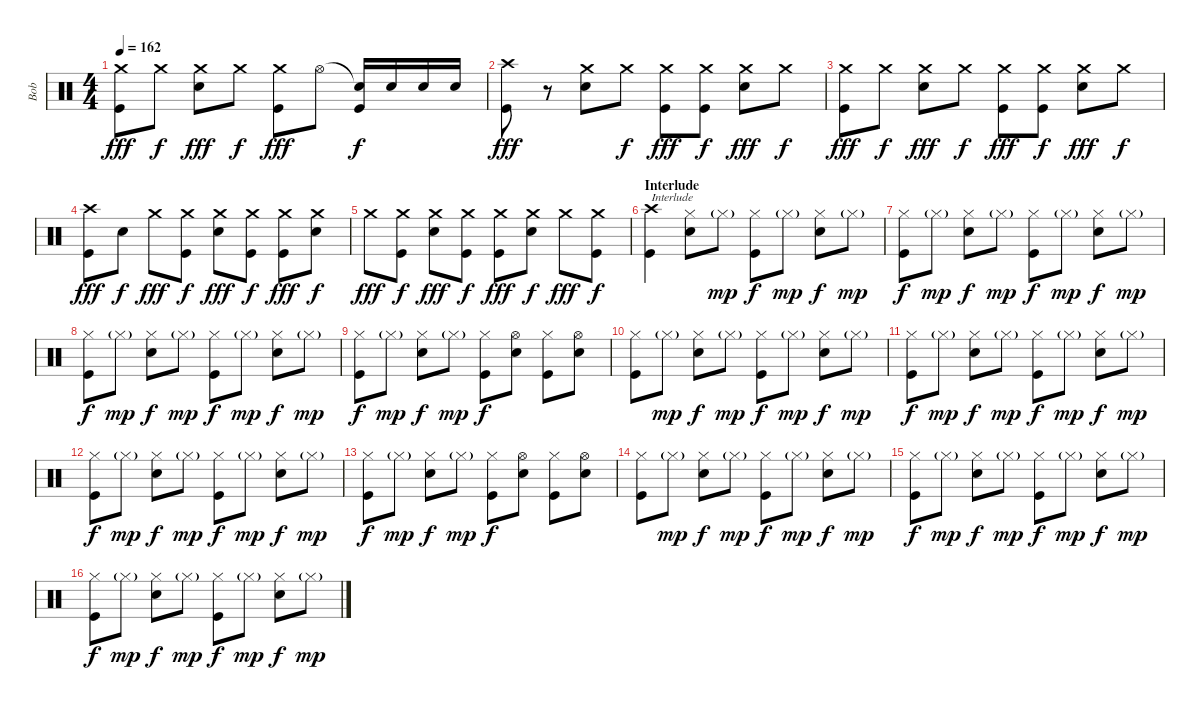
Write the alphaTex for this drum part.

\track ("Bob" "Bob") {instrument percussion}
\staff {score}
\articulation defaults
\ts (4 4)
\tempo 162
\clef neutral
\ks c
("Crash medium (hit)" "Kick (hit)").8{dy fff} "Crash medium (hit)".8{dy f} ("Crash medium (hit)" "Electric Snare (hit)").8{dy fff} "Crash medium (hit)".8{dy f} ("Crash medium (hit)" "Kick (hit)").8{dy fff} "Hi-Hat (open)".8 ("Snare (hit)"{t} "Kick (hit)").16{dy f} "Electric Snare (hit)".16 "Electric Snare (hit)".16 "Electric Snare (hit)".16 |
("Crash high (hit)" "Kick (hit)").8{dy fff} r.8 ("Crash medium (hit)" "Electric Snare (hit)").8 "Crash medium (hit)".8{dy f} ("Crash medium (hit)" "Kick (hit)").8{dy fff} ("Crash medium (hit)" "Kick (hit)").8{dy f} ("Crash medium (hit)" "Electric Snare (hit)").8{dy fff} "Crash medium (hit)".8{dy f} |
("Crash medium (hit)" "Kick (hit)").8{dy fff} "Crash medium (hit)".8{dy f} ("Crash medium (hit)" "Electric Snare (hit)").8{dy fff} "Crash medium (hit)".8{dy f} ("Crash medium (hit)" "Kick (hit)").8{dy fff} ("Crash medium (hit)" "Kick (hit)").8{dy f} ("Crash medium (hit)" "Electric Snare (hit)").8{dy fff} "Crash medium (hit)".8{dy f} |
("Crash high (hit)" "Kick (hit)").8{dy fff} "Electric Snare (hit)".8{dy f} "Crash medium (hit)".8{dy fff} ("Crash medium (hit)" "Kick (hit)").8{dy f} ("Crash medium (hit)" "Electric Snare (hit)").8{dy fff} ("Crash medium (hit)" "Kick (hit)").8{dy f} ("Crash medium (hit)" "Kick (hit)").8{dy fff} ("Crash medium (hit)" "Electric Snare (hit)").8{dy f} |
"Crash medium (hit)".8{dy fff} ("Crash medium (hit)" "Kick (hit)").8{dy f} ("Crash medium (hit)" "Electric Snare (hit)").8{dy fff} ("Crash medium (hit)" "Kick (hit)").8{dy f} ("Crash medium (hit)" "Kick (hit)").8{dy fff} ("Crash medium (hit)" "Electric Snare (hit)").8{dy f} "Crash medium (hit)".8{dy fff} ("Crash medium (hit)" "Kick (hit)").8{dy f} |
\section ("" "Interlude")
("Crash high (hit)" "Kick (hit)").4{txt "Interlude"} ("Hi-Hat (closed)" "Electric Snare (hit)").8 "Hi-Hat (closed)"{g}.8{dy mp} ("Hi-Hat (closed)" "Kick (hit)").8{dy f} "Hi-Hat (closed)"{g}.8{dy mp} ("Hi-Hat (closed)" "Electric Snare (hit)").8{dy f} "Hi-Hat (closed)"{g}.8{dy mp} |
("Hi-Hat (closed)" "Kick (hit)").8{dy f} "Hi-Hat (closed)"{g}.8{dy mp} ("Hi-Hat (closed)" "Electric Snare (hit)").8{dy f} "Hi-Hat (closed)"{g}.8{dy mp} ("Hi-Hat (closed)" "Kick (hit)").8{dy f} "Hi-Hat (closed)"{g}.8{dy mp} ("Hi-Hat (closed)" "Electric Snare (hit)").8{dy f} "Hi-Hat (closed)"{g}.8{dy mp} |
("Hi-Hat (closed)" "Kick (hit)").8{dy f} "Hi-Hat (closed)"{g}.8{dy mp} ("Hi-Hat (closed)" "Electric Snare (hit)").8{dy f} "Hi-Hat (closed)"{g}.8{dy mp} ("Hi-Hat (closed)" "Kick (hit)").8{dy f} "Hi-Hat (closed)"{g}.8{dy mp} ("Hi-Hat (closed)" "Electric Snare (hit)").8{dy f} "Hi-Hat (closed)"{g}.8{dy mp} |
("Hi-Hat (closed)" "Kick (hit)").8{dy f} "Hi-Hat (closed)"{g}.8{dy mp} ("Hi-Hat (closed)" "Electric Snare (hit)").8{dy f} "Hi-Hat (closed)"{g}.8{dy mp} ("Hi-Hat (closed)" "Kick (hit)").8{dy f} ("Hi-Hat (open)" "Electric Snare (hit)").8 ("Hi-Hat (closed)" "Kick (hit)").8 ("Hi-Hat (open)" "Electric Snare (hit)").8 |
("Hi-Hat (closed)" "Kick (hit)").8 "Hi-Hat (closed)"{g}.8{dy mp} ("Hi-Hat (closed)" "Electric Snare (hit)").8{dy f} "Hi-Hat (closed)"{g}.8{dy mp} ("Hi-Hat (closed)" "Kick (hit)").8{dy f} "Hi-Hat (closed)"{g}.8{dy mp} ("Hi-Hat (closed)" "Electric Snare (hit)").8{dy f} "Hi-Hat (closed)"{g}.8{dy mp} |
("Hi-Hat (closed)" "Kick (hit)").8{dy f} "Hi-Hat (closed)"{g}.8{dy mp} ("Hi-Hat (closed)" "Electric Snare (hit)").8{dy f} "Hi-Hat (closed)"{g}.8{dy mp} ("Hi-Hat (closed)" "Kick (hit)").8{dy f} "Hi-Hat (closed)"{g}.8{dy mp} ("Hi-Hat (closed)" "Electric Snare (hit)").8{dy f} "Hi-Hat (closed)"{g}.8{dy mp} |
("Hi-Hat (closed)" "Kick (hit)").8{dy f} "Hi-Hat (closed)"{g}.8{dy mp} ("Hi-Hat (closed)" "Electric Snare (hit)").8{dy f} "Hi-Hat (closed)"{g}.8{dy mp} ("Hi-Hat (closed)" "Kick (hit)").8{dy f} "Hi-Hat (closed)"{g}.8{dy mp} ("Hi-Hat (closed)" "Electric Snare (hit)").8{dy f} "Hi-Hat (closed)"{g}.8{dy mp} |
("Hi-Hat (closed)" "Kick (hit)").8{dy f} "Hi-Hat (closed)"{g}.8{dy mp} ("Hi-Hat (closed)" "Electric Snare (hit)").8{dy f} "Hi-Hat (closed)"{g}.8{dy mp} ("Hi-Hat (closed)" "Kick (hit)").8{dy f} ("Hi-Hat (open)" "Electric Snare (hit)").8 ("Hi-Hat (closed)" "Kick (hit)").8 ("Hi-Hat (open)" "Electric Snare (hit)").8 |
("Hi-Hat (closed)" "Kick (hit)").8 "Hi-Hat (closed)"{g}.8{dy mp} ("Hi-Hat (closed)" "Electric Snare (hit)").8{dy f} "Hi-Hat (closed)"{g}.8{dy mp} ("Hi-Hat (closed)" "Kick (hit)").8{dy f} "Hi-Hat (closed)"{g}.8{dy mp} ("Hi-Hat (closed)" "Electric Snare (hit)").8{dy f} "Hi-Hat (closed)"{g}.8{dy mp} |
("Hi-Hat (closed)" "Kick (hit)").8{dy f} "Hi-Hat (closed)"{g}.8{dy mp} ("Hi-Hat (closed)" "Electric Snare (hit)").8{dy f} "Hi-Hat (closed)"{g}.8{dy mp} ("Hi-Hat (closed)" "Kick (hit)").8{dy f} "Hi-Hat (closed)"{g}.8{dy mp} ("Hi-Hat (closed)" "Electric Snare (hit)").8{dy f} "Hi-Hat (closed)"{g}.8{dy mp} |
("Hi-Hat (closed)" "Kick (hit)").8{dy f} "Hi-Hat (closed)"{g}.8{dy mp} ("Hi-Hat (closed)" "Electric Snare (hit)").8{dy f} "Hi-Hat (closed)"{g}.8{dy mp} ("Hi-Hat (closed)" "Kick (hit)").8{dy f} "Hi-Hat (closed)"{g}.8{dy mp} ("Hi-Hat (closed)" "Electric Snare (hit)").8{dy f} "Hi-Hat (closed)"{g}.8{dy mp}
